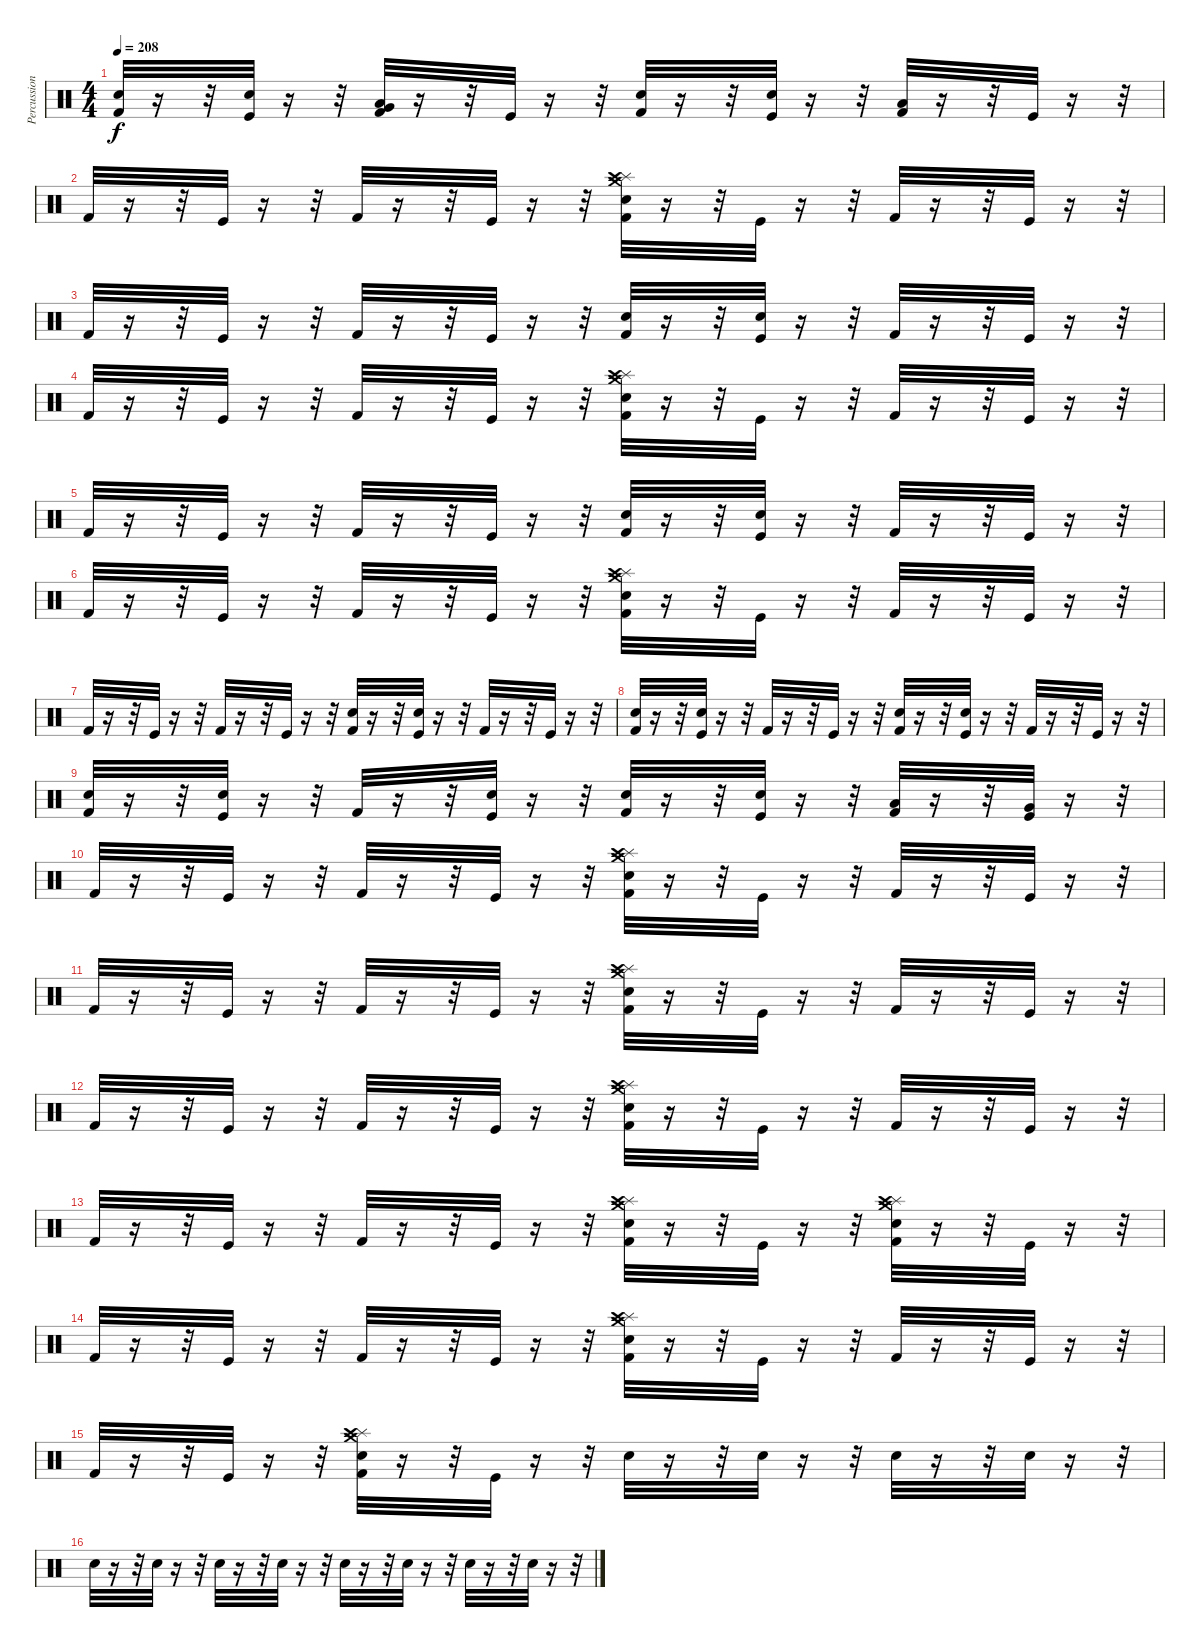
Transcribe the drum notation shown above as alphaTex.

\track ("Percussion" "Percussion") {instrument percussion}
\staff {score}
\articulation defaults
\ts (4 4)
\tempo 208
\clef neutral
\ks c
("Snare (hit) 2" "Kick (hit) 2").32{dy f} r.16 r.32 ("Snare (hit) 2" "Kick (hit)").32 r.16 r.32 ("Very Low Tom (hit)" "Low Floor Tom (hit)" "Kick (hit) 2").32 r.16 r.32 "Kick (hit)".32 r.16 r.32 ("Snare (hit) 2" "Kick (hit) 2").32 r.16 r.32 ("Snare (hit) 2" "Kick (hit)").32 r.16 r.32 ("Low Floor Tom (hit)" "Kick (hit) 2").32 r.16 r.32 "Kick (hit)".32 r.16 r.32 |
"Kick (hit) 2".32 r.16 r.32 "Kick (hit)".32 r.16 r.32 "Kick (hit) 2".32 r.16 r.32 "Kick (hit)".32 r.16 r.32 ("Crash medium (hit)" "Splash (hit)" "Crash high (hit)" "Snare (hit) 2" "Kick (hit) 2").32 r.16 r.32 "Kick (hit)".32 r.16 r.32 "Kick (hit) 2".32 r.16 r.32 "Kick (hit)".32 r.16 r.32 |
"Kick (hit) 2".32 r.16 r.32 "Kick (hit)".32 r.16 r.32 "Kick (hit) 2".32 r.16 r.32 "Kick (hit)".32 r.16 r.32 ("Snare (hit) 2" "Kick (hit) 2").32 r.16 r.32 ("Snare (hit) 2" "Kick (hit)").32 r.16 r.32 "Kick (hit) 2".32 r.16 r.32 "Kick (hit)".32 r.16 r.32 |
"Kick (hit) 2".32 r.16 r.32 "Kick (hit)".32 r.16 r.32 "Kick (hit) 2".32 r.16 r.32 "Kick (hit)".32 r.16 r.32 ("Crash medium (hit)" "Splash (hit)" "Crash high (hit)" "Snare (hit) 2" "Kick (hit) 2").32 r.16 r.32 "Kick (hit)".32 r.16 r.32 "Kick (hit) 2".32 r.16 r.32 "Kick (hit)".32 r.16 r.32 |
"Kick (hit) 2".32 r.16 r.32 "Kick (hit)".32 r.16 r.32 "Kick (hit) 2".32 r.16 r.32 "Kick (hit)".32 r.16 r.32 ("Snare (hit) 2" "Kick (hit) 2").32 r.16 r.32 ("Snare (hit) 2" "Kick (hit)").32 r.16 r.32 "Kick (hit) 2".32 r.16 r.32 "Kick (hit)".32 r.16 r.32 |
"Kick (hit) 2".32 r.16 r.32 "Kick (hit)".32 r.16 r.32 "Kick (hit) 2".32 r.16 r.32 "Kick (hit)".32 r.16 r.32 ("Crash medium (hit)" "Splash (hit)" "Crash high (hit)" "Snare (hit) 2" "Kick (hit) 2").32 r.16 r.32 "Kick (hit)".32 r.16 r.32 "Kick (hit) 2".32 r.16 r.32 "Kick (hit)".32 r.16 r.32 |
"Kick (hit) 2".32 r.16 r.32 "Kick (hit)".32 r.16 r.32 "Kick (hit) 2".32 r.16 r.32 "Kick (hit)".32 r.16 r.32 ("Snare (hit) 2" "Kick (hit) 2").32 r.16 r.32 ("Snare (hit) 2" "Kick (hit)").32 r.16 r.32 "Kick (hit) 2".32 r.16 r.32 "Kick (hit)".32 r.16 r.32 |
("Snare (hit) 2" "Kick (hit) 2").32 r.16 r.32 ("Snare (hit) 2" "Kick (hit)").32 r.16 r.32 "Kick (hit) 2".32 r.16 r.32 "Kick (hit)".32 r.16 r.32 ("Snare (hit) 2" "Kick (hit) 2").32 r.16 r.32 ("Snare (hit) 2" "Kick (hit)").32 r.16 r.32 "Kick (hit) 2".32 r.16 r.32 "Kick (hit)".32 r.16 r.32 |
("Snare (hit) 2" "Kick (hit) 2").32 r.16 r.32 ("Snare (hit) 2" "Kick (hit)").32 r.16 r.32 "Kick (hit) 2".32 r.16 r.32 ("Snare (hit) 2" "Kick (hit)").32 r.16 r.32 ("Snare (hit) 2" "Kick (hit) 2").32 r.16 r.32 ("Snare (hit) 2" "Kick (hit)").32 r.16 r.32 ("Low Tom (hit)" "Kick (hit) 2").32 r.16 r.32 ("Very Low Tom (hit)" "Kick (hit)").32 r.16 r.32 |
"Kick (hit) 2".32 r.16 r.32 "Kick (hit)".32 r.16 r.32 "Kick (hit) 2".32 r.16 r.32 "Kick (hit)".32 r.16 r.32 ("Crash medium (hit)" "Splash (hit)" "Crash high (hit)" "Snare (hit) 2" "Kick (hit) 2").32 r.16 r.32 "Kick (hit)".32 r.16 r.32 "Kick (hit) 2".32 r.16 r.32 "Kick (hit)".32 r.16 r.32 |
"Kick (hit) 2".32 r.16 r.32 "Kick (hit)".32 r.16 r.32 "Kick (hit) 2".32 r.16 r.32 "Kick (hit)".32 r.16 r.32 ("Crash medium (hit)" "Splash (hit)" "Crash high (hit)" "Snare (hit) 2" "Kick (hit) 2").32 r.16 r.32 "Kick (hit)".32 r.16 r.32 "Kick (hit) 2".32 r.16 r.32 "Kick (hit)".32 r.16 r.32 |
"Kick (hit) 2".32 r.16 r.32 "Kick (hit)".32 r.16 r.32 "Kick (hit) 2".32 r.16 r.32 "Kick (hit)".32 r.16 r.32 ("Crash medium (hit)" "Splash (hit)" "Crash high (hit)" "Snare (hit) 2" "Kick (hit) 2").32 r.16 r.32 "Kick (hit)".32 r.16 r.32 "Kick (hit) 2".32 r.16 r.32 "Kick (hit)".32 r.16 r.32 |
"Kick (hit) 2".32 r.16 r.32 "Kick (hit)".32 r.16 r.32 "Kick (hit) 2".32 r.16 r.32 "Kick (hit)".32 r.16 r.32 ("Crash medium (hit)" "Splash (hit)" "Crash high (hit)" "Snare (hit) 2" "Kick (hit) 2").32 r.16 r.32 "Kick (hit)".32 r.16 r.32 ("Crash medium (hit)" "Splash (hit)" "Crash high (hit)" "Snare (hit) 2" "Kick (hit) 2").32 r.16 r.32 "Kick (hit)".32 r.16 r.32 |
"Kick (hit) 2".32 r.16 r.32 "Kick (hit)".32 r.16 r.32 "Kick (hit) 2".32 r.16 r.32 "Kick (hit)".32 r.16 r.32 ("Crash medium (hit)" "Splash (hit)" "Crash high (hit)" "Snare (hit) 2" "Kick (hit) 2").32 r.16 r.32 "Kick (hit)".32 r.16 r.32 "Kick (hit) 2".32 r.16 r.32 "Kick (hit)".32 r.16 r.32 |
"Kick (hit) 2".32 r.16 r.32 "Kick (hit)".32 r.16 r.32 ("Crash medium (hit)" "Splash (hit)" "Crash high (hit)" "Snare (hit) 2" "Kick (hit) 2").32 r.16 r.32 "Kick (hit)".32 r.16 r.32 "Snare (hit) 2".32 r.16 r.32 "Snare (hit) 2".32 r.16 r.32 "Snare (hit) 2".32 r.16 r.32 "Snare (hit) 2".32 r.16 r.32 |
"Snare (hit) 2".32 r.16 r.32 "Snare (hit) 2".32 r.16 r.32 "Snare (hit) 2".32 r.16 r.32 "Snare (hit) 2".32 r.16 r.32 "Snare (hit) 2".32 r.16 r.32 "Snare (hit) 2".32 r.16 r.32 "Snare (hit) 2".32 r.16 r.32 "Snare (hit) 2".32 r.16 r.32
